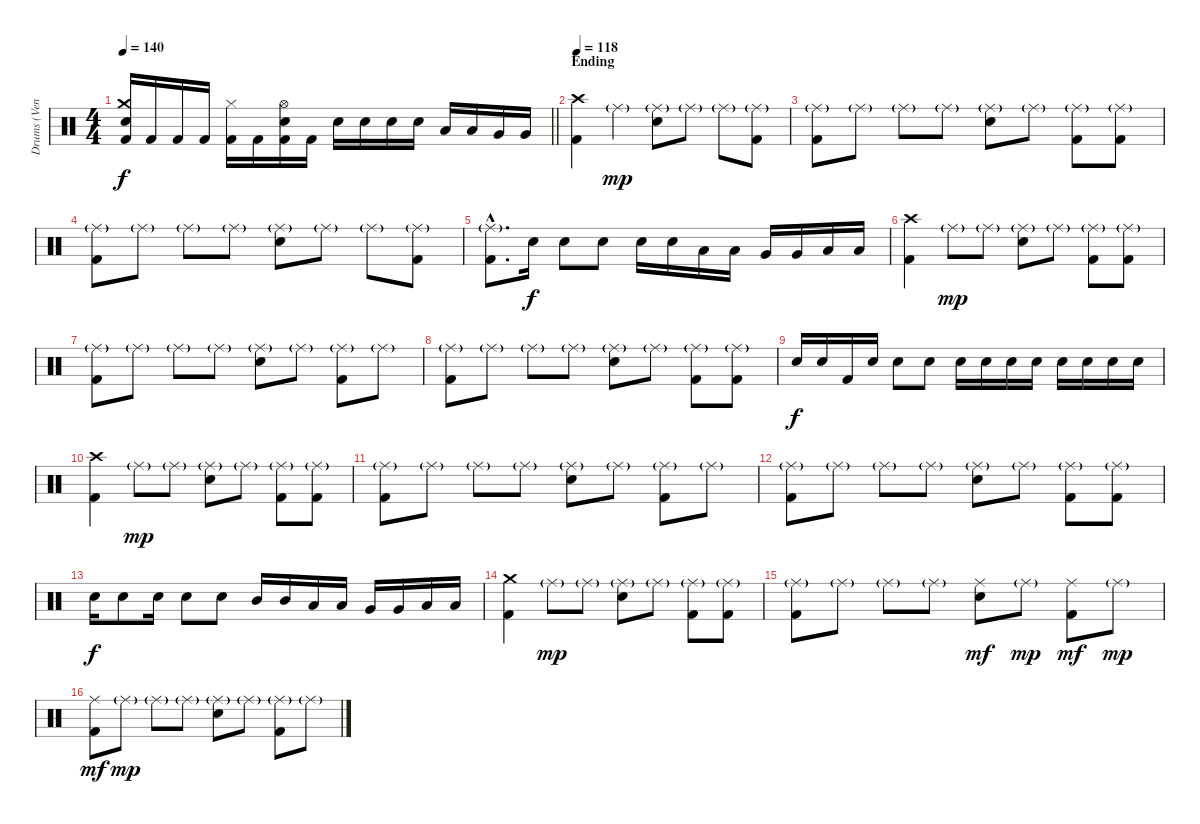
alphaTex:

\track ("Drums (Ventor)" "Drums (Ven") {instrument percussion}
\staff {score}
\articulation defaults
\ts (4 4)
\tempo 140
\clef neutral
\barLineRight lightlight
\ks c
("Electric Snare (hit)" "Crash medium (hit)" "Kick (hit) 2").16{dy f} "Kick (hit) 2".16 "Kick (hit) 2".16 "Kick (hit) 2".16 ("Hi-Hat (closed)" "Kick (hit) 2").16 "Kick (hit) 2".16 ("Electric Snare (hit)" "Hi-Hat (open)" "Kick (hit) 2").16 "Kick (hit) 2".16 "Electric Snare (hit)".16 "Electric Snare (hit)".16 "Electric Snare (hit)".16 "Electric Snare (hit)".16 "Low Tom (hit)".16 "Low Tom (hit)".16 "Very Low Tom (hit)".16 "Very Low Tom (hit)".16 |
\section ("" "Ending")
\tempo 118
("Crash high (hit)" "Kick (hit) 2").4 "Ride (middle)"{g}.4{dy mp} ("Electric Snare (hit)" "Ride (middle)"{g}).8 "Ride (middle)"{g}.8 "Ride (middle)"{g}.8 ("Ride (middle)"{g} "Kick (hit) 2").8 |
("Ride (middle)"{g} "Kick (hit) 2").8 "Ride (middle)"{g}.8 "Ride (middle)"{g}.8 "Ride (middle)"{g}.8 ("Electric Snare (hit)" "Ride (middle)"{g}).8 "Ride (middle)"{g}.8 ("Ride (middle)"{g} "Kick (hit) 2").8 ("Ride (middle)"{g} "Kick (hit) 2").8 |
("Ride (middle)"{g} "Kick (hit) 2").8 "Ride (middle)"{g}.8 "Ride (middle)"{g}.8 "Ride (middle)"{g}.8 ("Electric Snare (hit)" "Ride (middle)"{g}).8 "Ride (middle)"{g}.8 "Ride (middle)"{g}.8 ("Ride (middle)"{g} "Kick (hit) 2").8 |
("Ride (middle)"{g hac} "Kick (hit) 2"{hac}).8{d} "Electric Snare (hit)".16{dy f} "Electric Snare (hit)".8 "Electric Snare (hit)".8 "Electric Snare (hit)".16 "Electric Snare (hit)".16 "Low Tom (hit)".16 "Low Tom (hit)".16 "Very Low Tom (hit)".16 "Very Low Tom (hit)".16 "Low Floor Tom (hit)".16 "Low Floor Tom (hit)".16 |
("Crash high (hit)" "Kick (hit) 2").4 "Ride (middle)"{g}.8{dy mp} "Ride (middle)"{g}.8 ("Electric Snare (hit)" "Ride (middle)"{g}).8 "Ride (middle)"{g}.8 ("Ride (middle)"{g} "Kick (hit) 2").8 ("Ride (middle)"{g} "Kick (hit) 2").8 |
("Ride (middle)"{g} "Kick (hit) 2").8 "Ride (middle)"{g}.8 "Ride (middle)"{g}.8 "Ride (middle)"{g}.8 ("Electric Snare (hit)" "Ride (middle)"{g}).8 "Ride (middle)"{g}.8 ("Ride (middle)"{g} "Kick (hit) 2").8 "Ride (middle)"{g}.8 |
("Ride (middle)"{g} "Kick (hit) 2").8 "Ride (middle)"{g}.8 "Ride (middle)"{g}.8 "Ride (middle)"{g}.8 ("Electric Snare (hit)" "Ride (middle)"{g}).8 "Ride (middle)"{g}.8 ("Ride (middle)"{g} "Kick (hit) 2").8 ("Ride (middle)"{g} "Kick (hit) 2").8 |
"Electric Snare (hit)".16{dy f} "Electric Snare (hit)".16 "Kick (hit) 2".16 "Electric Snare (hit)".16 "Electric Snare (hit)".8 "Electric Snare (hit)".8 "Electric Snare (hit)".16 "Electric Snare (hit)".16 "Electric Snare (hit)".16 "Electric Snare (hit)".16 "Electric Snare (hit)".16 "Electric Snare (hit)".16 "Electric Snare (hit)".16 "Electric Snare (hit)".16 |
("Crash high (hit)" "Kick (hit) 2").4 "Ride (middle)"{g}.8{dy mp} "Ride (middle)"{g}.8 ("Electric Snare (hit)" "Ride (middle)"{g}).8 "Ride (middle)"{g}.8 ("Ride (middle)"{g} "Kick (hit) 2").8 ("Ride (middle)"{g} "Kick (hit) 2").8 |
("Ride (middle)"{g} "Kick (hit) 2").8 "Ride (middle)"{g}.8 "Ride (middle)"{g}.8 "Ride (middle)"{g}.8 ("Electric Snare (hit)" "Ride (middle)"{g}).8 "Ride (middle)"{g}.8 ("Ride (middle)"{g} "Kick (hit) 2").8 "Ride (middle)"{g}.8 |
("Ride (middle)"{g} "Kick (hit) 2").8 "Ride (middle)"{g}.8 "Ride (middle)"{g}.8 "Ride (middle)"{g}.8 ("Electric Snare (hit)" "Ride (middle)"{g}).8 "Ride (middle)"{g}.8 ("Ride (middle)"{g} "Kick (hit) 2").8 ("Ride (middle)"{g} "Kick (hit) 2").8 |
"Electric Snare (hit)".16{dy f} "Electric Snare (hit)".8 "Electric Snare (hit)".16 "Electric Snare (hit)".8 "Electric Snare (hit)".8 "Mid Tom (hit)".16 "Mid Tom (hit)".16 "Low Tom (hit)".16 "Low Tom (hit)".16 "Very Low Tom (hit)".16 "Very Low Tom (hit)".16 "Low Floor Tom (hit)".16 "Low Floor Tom (hit)".16 |
("Crash medium (hit)" "Kick (hit) 2").4 "Ride (middle)"{g}.8{dy mp} "Ride (middle)"{g}.8 ("Electric Snare (hit)" "Ride (middle)"{g}).8 "Ride (middle)"{g}.8 ("Ride (middle)"{g} "Kick (hit) 2").8 ("Ride (middle)"{g} "Kick (hit) 2").8 |
("Ride (middle)"{g} "Kick (hit) 2").8 "Ride (middle)"{g}.8 "Ride (middle)"{g}.8 "Ride (middle)"{g}.8 ("Electric Snare (hit)" "Ride (middle)").8{dy mf} "Ride (middle)"{g}.8{dy mp} ("Ride (middle)" "Kick (hit) 2").8{dy mf} "Ride (middle)"{g}.8{dy mp} |
("Ride (middle)" "Kick (hit) 2").8{dy mf} "Ride (middle)"{g}.8{dy mp} "Ride (middle)"{g}.8 "Ride (middle)"{g}.8 ("Electric Snare (hit)" "Ride (middle)"{g}).8 "Ride (middle)"{g}.8 ("Ride (middle)"{g} "Kick (hit) 2").8 "Ride (middle)"{g}.8
